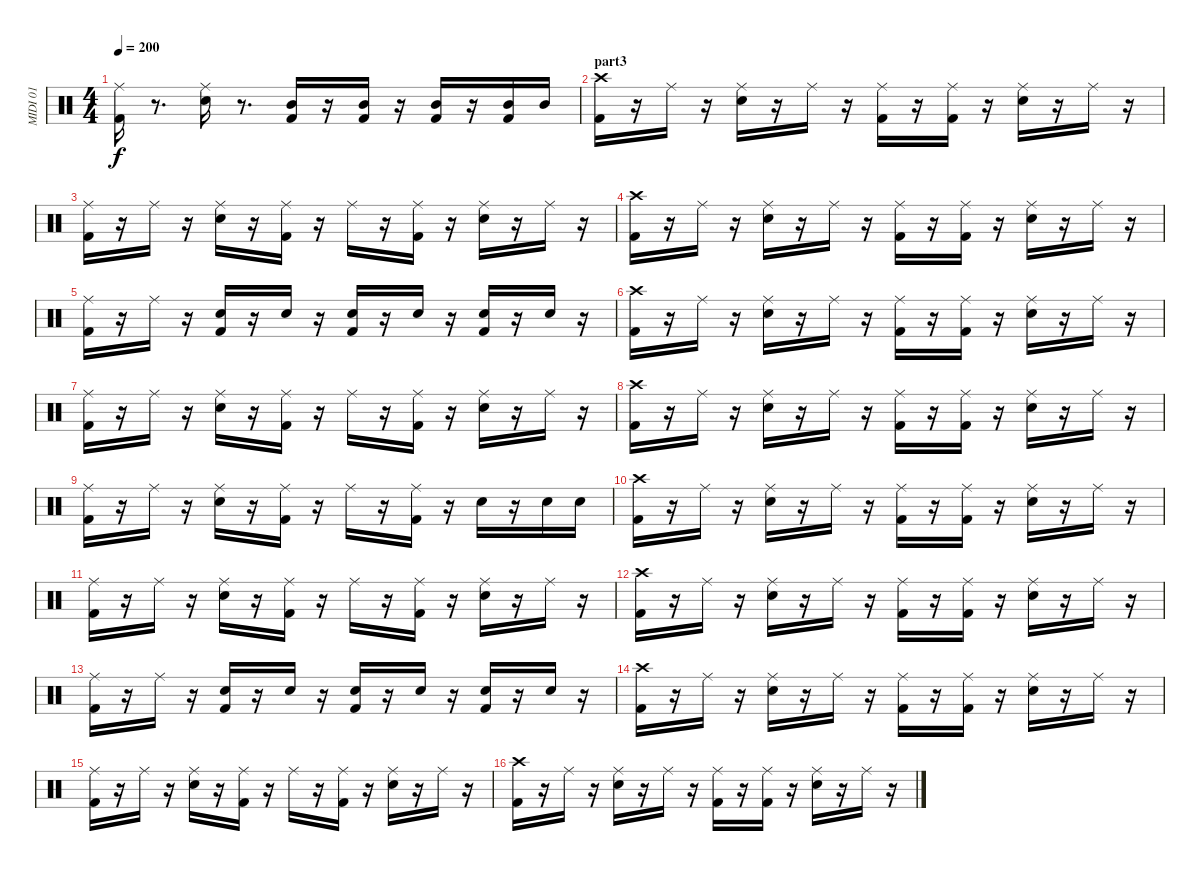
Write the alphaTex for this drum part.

\track ("MIDI 01" "MIDI 01") {instrument percussion}
\staff {score}
\articulation defaults
\ts (4 4)
\tempo 200
\clef neutral
\ks c
("Kick (hit) 2" "Ride (middle)").16{dy f} r.8{d} ("Snare (hit) 2" "Ride (middle)").16 r.8{d} ("Mid Tom (hit)" "Kick (hit) 2").16 r.16 ("Mid Tom (hit)" "Kick (hit) 2").16 r.16 ("Mid Tom (hit)" "Kick (hit) 2").16 r.16 ("Mid Tom (hit)" "Kick (hit) 2").16 "Mid Tom (hit)".16 |
\section ("" "part3")
("Kick (hit) 2" "Crash high (hit)").16 r.16 "Ride (middle)".16 r.16 ("Snare (hit) 2" "Ride (middle)").16 r.16 "Ride (middle)".16 r.16 ("Kick (hit) 2" "Ride (middle)").16 r.16 ("Kick (hit) 2" "Ride (middle)").16 r.16 ("Snare (hit) 2" "Ride (middle)").16 r.16 "Ride (middle)".16 r.16 |
("Kick (hit) 2" "Ride (middle)").16 r.16 "Ride (middle)".16 r.16 ("Snare (hit) 2" "Ride (middle)").16 r.16 ("Kick (hit) 2" "Ride (middle)").16 r.16 "Ride (middle)".16 r.16 ("Kick (hit) 2" "Ride (middle)").16 r.16 ("Snare (hit) 2" "Ride (middle)").16 r.16 "Ride (middle)".16 r.16 |
("Kick (hit) 2" "Crash high (hit)").16 r.16 "Ride (middle)".16 r.16 ("Snare (hit) 2" "Ride (middle)").16 r.16 "Ride (middle)".16 r.16 ("Kick (hit) 2" "Ride (middle)").16 r.16 ("Kick (hit) 2" "Ride (middle)").16 r.16 ("Snare (hit) 2" "Ride (middle)").16 r.16 "Ride (middle)".16 r.16 |
("Kick (hit) 2" "Ride (middle)").16 r.16 "Ride (middle)".16 r.16 ("Snare (hit) 2" "Kick (hit) 2").16 r.16 "Snare (hit) 2".16 r.16 ("Snare (hit) 2" "Kick (hit) 2").16 r.16 "Snare (hit) 2".16 r.16 ("Snare (hit) 2" "Kick (hit) 2").16 r.16 "Snare (hit) 2".16 r.16 |
("Kick (hit) 2" "Crash high (hit)").16 r.16 "Ride (middle)".16 r.16 ("Snare (hit) 2" "Ride (middle)").16 r.16 "Ride (middle)".16 r.16 ("Kick (hit) 2" "Ride (middle)").16 r.16 ("Kick (hit) 2" "Ride (middle)").16 r.16 ("Snare (hit) 2" "Ride (middle)").16 r.16 "Ride (middle)".16 r.16 |
("Kick (hit) 2" "Ride (middle)").16 r.16 "Ride (middle)".16 r.16 ("Snare (hit) 2" "Ride (middle)").16 r.16 ("Kick (hit) 2" "Ride (middle)").16 r.16 "Ride (middle)".16 r.16 ("Kick (hit) 2" "Ride (middle)").16 r.16 ("Snare (hit) 2" "Ride (middle)").16 r.16 "Ride (middle)".16 r.16 |
("Kick (hit) 2" "Crash high (hit)").16 r.16 "Ride (middle)".16 r.16 ("Snare (hit) 2" "Ride (middle)").16 r.16 "Ride (middle)".16 r.16 ("Kick (hit) 2" "Ride (middle)").16 r.16 ("Kick (hit) 2" "Ride (middle)").16 r.16 ("Snare (hit) 2" "Ride (middle)").16 r.16 "Ride (middle)".16 r.16 |
("Kick (hit) 2" "Ride (middle)").16 r.16 "Ride (middle)".16 r.16 ("Snare (hit) 2" "Ride (middle)").16 r.16 ("Kick (hit) 2" "Ride (middle)").16 r.16 "Ride (middle)".16 r.16 ("Kick (hit) 2" "Ride (middle)").16 r.16 "Snare (hit) 2".16 r.16 "Snare (hit) 2".16 "Snare (hit) 2".16 |
("Kick (hit) 2" "Crash high (hit)").16 r.16 "Ride (middle)".16 r.16 ("Snare (hit) 2" "Ride (middle)").16 r.16 "Ride (middle)".16 r.16 ("Kick (hit) 2" "Ride (middle)").16 r.16 ("Kick (hit) 2" "Ride (middle)").16 r.16 ("Snare (hit) 2" "Ride (middle)").16 r.16 "Ride (middle)".16 r.16 |
("Kick (hit) 2" "Ride (middle)").16 r.16 "Ride (middle)".16 r.16 ("Snare (hit) 2" "Ride (middle)").16 r.16 ("Kick (hit) 2" "Ride (middle)").16 r.16 "Ride (middle)".16 r.16 ("Kick (hit) 2" "Ride (middle)").16 r.16 ("Snare (hit) 2" "Ride (middle)").16 r.16 "Ride (middle)".16 r.16 |
("Kick (hit) 2" "Crash high (hit)").16 r.16 "Ride (middle)".16 r.16 ("Snare (hit) 2" "Ride (middle)").16 r.16 "Ride (middle)".16 r.16 ("Kick (hit) 2" "Ride (middle)").16 r.16 ("Kick (hit) 2" "Ride (middle)").16 r.16 ("Snare (hit) 2" "Ride (middle)").16 r.16 "Ride (middle)".16 r.16 |
("Kick (hit) 2" "Ride (middle)").16 r.16 "Ride (middle)".16 r.16 ("Snare (hit) 2" "Kick (hit) 2").16 r.16 "Snare (hit) 2".16 r.16 ("Snare (hit) 2" "Kick (hit) 2").16 r.16 "Snare (hit) 2".16 r.16 ("Snare (hit) 2" "Kick (hit) 2").16 r.16 "Snare (hit) 2".16 r.16 |
("Kick (hit) 2" "Crash high (hit)").16 r.16 "Ride (middle)".16 r.16 ("Snare (hit) 2" "Ride (middle)").16 r.16 "Ride (middle)".16 r.16 ("Kick (hit) 2" "Ride (middle)").16 r.16 ("Kick (hit) 2" "Ride (middle)").16 r.16 ("Snare (hit) 2" "Ride (middle)").16 r.16 "Ride (middle)".16 r.16 |
("Kick (hit) 2" "Ride (middle)").16 r.16 "Ride (middle)".16 r.16 ("Snare (hit) 2" "Ride (middle)").16 r.16 ("Kick (hit) 2" "Ride (middle)").16 r.16 "Ride (middle)".16 r.16 ("Kick (hit) 2" "Ride (middle)").16 r.16 ("Snare (hit) 2" "Ride (middle)").16 r.16 "Ride (middle)".16 r.16 |
("Kick (hit) 2" "Crash high (hit)").16 r.16 "Ride (middle)".16 r.16 ("Snare (hit) 2" "Ride (middle)").16 r.16 "Ride (middle)".16 r.16 ("Kick (hit) 2" "Ride (middle)").16 r.16 ("Kick (hit) 2" "Ride (middle)").16 r.16 ("Snare (hit) 2" "Ride (middle)").16 r.16 "Ride (middle)".16 r.16
